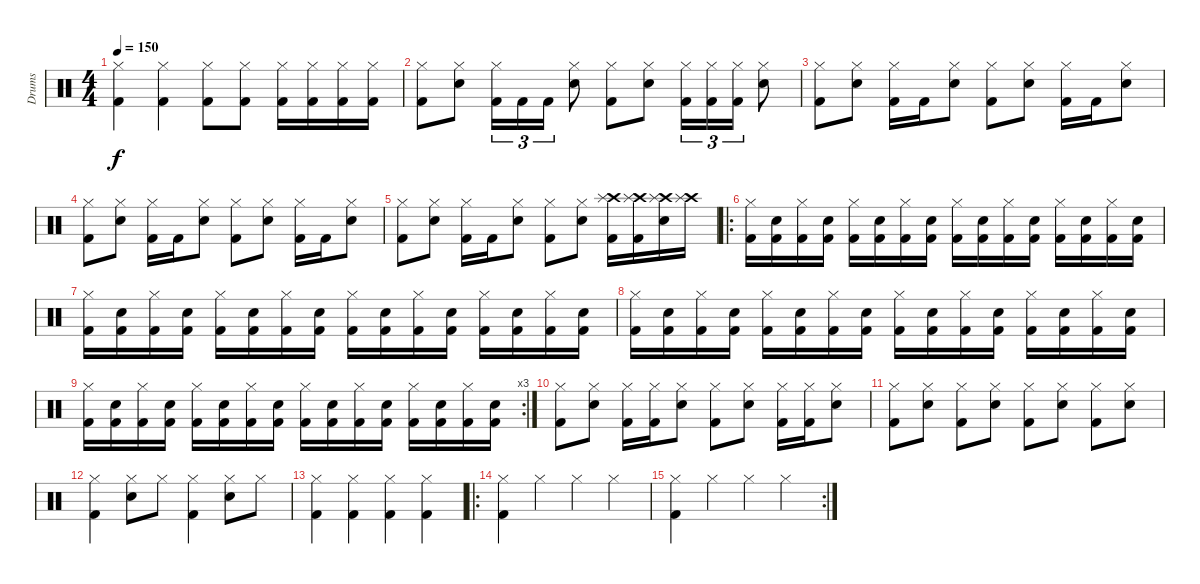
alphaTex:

\track ("Drums" "Drums") {instrument percussion}
\staff {score}
\articulation defaults
\ts (4 4)
\tempo 150
\clef neutral
\ks c
("Hi-Hat (closed)" "Kick (hit) 2").4{dy f} ("Hi-Hat (closed)" "Kick (hit) 2").4 ("Hi-Hat (closed)" "Kick (hit) 2").8 ("Hi-Hat (closed)" "Kick (hit) 2").8 ("Hi-Hat (closed)" "Kick (hit) 2").16 ("Hi-Hat (closed)" "Kick (hit) 2").16 ("Hi-Hat (closed)" "Kick (hit) 2").16 ("Hi-Hat (closed)" "Kick (hit) 2").16 |
("Hi-Hat (closed)" "Kick (hit) 2").8 ("Hi-Hat (closed)" "Snare (hit) 2").8 ("Hi-Hat (closed)" "Kick (hit) 2").16{tu (3 2)} "Kick (hit) 2".16{tu (3 2)} "Kick (hit) 2".16{tu (3 2)} ("Hi-Hat (closed)" "Snare (hit) 2").8 ("Hi-Hat (closed)" "Kick (hit) 2").8 ("Hi-Hat (closed)" "Snare (hit) 2").8 ("Hi-Hat (closed)" "Kick (hit) 2").16{tu (3 2)} ("Hi-Hat (closed)" "Kick (hit) 2").16{tu (3 2)} ("Hi-Hat (closed)" "Kick (hit) 2").16{tu (3 2)} ("Hi-Hat (closed)" "Snare (hit) 2").8 |
("Hi-Hat (closed)" "Kick (hit) 2").8 ("Hi-Hat (closed)" "Snare (hit) 2").8 ("Hi-Hat (closed)" "Kick (hit) 2").16 "Kick (hit) 2".16 ("Hi-Hat (closed)" "Snare (hit) 2").8 ("Hi-Hat (closed)" "Kick (hit) 2").8 ("Hi-Hat (closed)" "Snare (hit) 2").8 ("Hi-Hat (closed)" "Kick (hit) 2").16 "Kick (hit) 2".16 ("Hi-Hat (closed)" "Snare (hit) 2").8 |
("Hi-Hat (closed)" "Kick (hit) 2").8 ("Hi-Hat (closed)" "Snare (hit) 2").8 ("Hi-Hat (closed)" "Kick (hit) 2").16 "Kick (hit) 2".16 ("Hi-Hat (closed)" "Snare (hit) 2").8 ("Hi-Hat (closed)" "Kick (hit) 2").8 ("Hi-Hat (closed)" "Snare (hit) 2").8 ("Hi-Hat (closed)" "Kick (hit) 2").16 "Kick (hit) 2".16 ("Hi-Hat (closed)" "Snare (hit) 2").8 |
("Hi-Hat (closed)" "Kick (hit) 2").8 ("Hi-Hat (closed)" "Snare (hit) 2").8 ("Hi-Hat (closed)" "Kick (hit) 2").16 "Kick (hit) 2".16 ("Hi-Hat (closed)" "Snare (hit) 2").8 ("Hi-Hat (closed)" "Kick (hit) 2").8 ("Hi-Hat (closed)" "Snare (hit) 2").8 ("Crash high (hit)" "Splash (hit)" "Kick (hit) 2").16 ("Crash high (hit)" "Splash (hit)" "Kick (hit) 2").16 ("Crash high (hit)" "Splash (hit)" "Snare (hit) 2").16 ("Crash high (hit)" "Splash (hit)").16 |
\ro
("Hi-Hat (closed)" "Kick (hit) 2").16 ("Kick (hit) 2" "Snare (hit) 2").16 ("Hi-Hat (closed)" "Kick (hit) 2").16 ("Kick (hit) 2" "Snare (hit) 2").16 ("Hi-Hat (closed)" "Kick (hit) 2").16 ("Kick (hit) 2" "Snare (hit) 2").16 ("Hi-Hat (closed)" "Kick (hit) 2").16 ("Kick (hit) 2" "Snare (hit) 2").16 ("Hi-Hat (closed)" "Kick (hit) 2").16 ("Kick (hit) 2" "Snare (hit) 2").16 ("Hi-Hat (closed)" "Kick (hit) 2").16 ("Kick (hit) 2" "Snare (hit) 2").16 ("Hi-Hat (closed)" "Kick (hit) 2").16 ("Kick (hit) 2" "Snare (hit) 2").16 ("Hi-Hat (closed)" "Kick (hit) 2").16 ("Kick (hit) 2" "Snare (hit) 2").16 |
("Hi-Hat (closed)" "Kick (hit) 2").16 ("Kick (hit) 2" "Snare (hit) 2").16 ("Hi-Hat (closed)" "Kick (hit) 2").16 ("Kick (hit) 2" "Snare (hit) 2").16 ("Hi-Hat (closed)" "Kick (hit) 2").16 ("Kick (hit) 2" "Snare (hit) 2").16 ("Hi-Hat (closed)" "Kick (hit) 2").16 ("Kick (hit) 2" "Snare (hit) 2").16 ("Hi-Hat (closed)" "Kick (hit) 2").16 ("Kick (hit) 2" "Snare (hit) 2").16 ("Hi-Hat (closed)" "Kick (hit) 2").16 ("Kick (hit) 2" "Snare (hit) 2").16 ("Hi-Hat (closed)" "Kick (hit) 2").16 ("Kick (hit) 2" "Snare (hit) 2").16 ("Hi-Hat (closed)" "Kick (hit) 2").16 ("Kick (hit) 2" "Snare (hit) 2").16 |
("Hi-Hat (closed)" "Kick (hit) 2").16 ("Kick (hit) 2" "Snare (hit) 2").16 ("Hi-Hat (closed)" "Kick (hit) 2").16 ("Kick (hit) 2" "Snare (hit) 2").16 ("Hi-Hat (closed)" "Kick (hit) 2").16 ("Kick (hit) 2" "Snare (hit) 2").16 ("Hi-Hat (closed)" "Kick (hit) 2").16 ("Kick (hit) 2" "Snare (hit) 2").16 ("Hi-Hat (closed)" "Kick (hit) 2").16 ("Kick (hit) 2" "Snare (hit) 2").16 ("Hi-Hat (closed)" "Kick (hit) 2").16 ("Kick (hit) 2" "Snare (hit) 2").16 ("Hi-Hat (closed)" "Kick (hit) 2").16 ("Kick (hit) 2" "Snare (hit) 2").16 ("Hi-Hat (closed)" "Kick (hit) 2").16 ("Kick (hit) 2" "Snare (hit) 2").16 |
\rc 3
("Hi-Hat (closed)" "Kick (hit) 2").16 ("Kick (hit) 2" "Snare (hit) 2").16 ("Hi-Hat (closed)" "Kick (hit) 2").16 ("Kick (hit) 2" "Snare (hit) 2").16 ("Hi-Hat (closed)" "Kick (hit) 2").16 ("Kick (hit) 2" "Snare (hit) 2").16 ("Hi-Hat (closed)" "Kick (hit) 2").16 ("Kick (hit) 2" "Snare (hit) 2").16 ("Hi-Hat (closed)" "Kick (hit) 2").16 ("Kick (hit) 2" "Snare (hit) 2").16 ("Hi-Hat (closed)" "Kick (hit) 2").16 ("Kick (hit) 2" "Snare (hit) 2").16 ("Hi-Hat (closed)" "Kick (hit) 2").16 ("Kick (hit) 2" "Snare (hit) 2").16 ("Hi-Hat (closed)" "Kick (hit) 2").16 ("Kick (hit) 2" "Snare (hit) 2").16 |
("Hi-Hat (closed)" "Kick (hit) 2").8 ("Hi-Hat (closed)" "Snare (hit) 2").8 ("Hi-Hat (closed)" "Kick (hit) 2").16 ("Hi-Hat (closed)" "Kick (hit) 2").16 ("Hi-Hat (closed)" "Snare (hit) 2").8 ("Hi-Hat (closed)" "Kick (hit) 2").8 ("Hi-Hat (closed)" "Snare (hit) 2").8 ("Hi-Hat (closed)" "Kick (hit) 2").16 ("Hi-Hat (closed)" "Kick (hit) 2").16 ("Hi-Hat (closed)" "Snare (hit) 2").8 |
("Hi-Hat (closed)" "Kick (hit) 2").8 ("Hi-Hat (closed)" "Snare (hit) 2").8 ("Hi-Hat (closed)" "Kick (hit) 2").8 ("Hi-Hat (closed)" "Snare (hit) 2").8 ("Hi-Hat (closed)" "Kick (hit) 2").8 ("Hi-Hat (closed)" "Snare (hit) 2").8 ("Hi-Hat (closed)" "Kick (hit) 2").8 ("Hi-Hat (closed)" "Snare (hit) 2").8 |
("Hi-Hat (closed)" "Kick (hit) 2").4 ("Hi-Hat (closed)" "Snare (hit) 2").8 "Hi-Hat (closed)".8 ("Hi-Hat (closed)" "Kick (hit) 2").4 ("Hi-Hat (closed)" "Snare (hit) 2").8 "Hi-Hat (closed)".8 |
("Hi-Hat (closed)" "Kick (hit) 2").4 ("Hi-Hat (closed)" "Kick (hit) 2").4 ("Hi-Hat (closed)" "Kick (hit) 2").4 ("Hi-Hat (closed)" "Kick (hit) 2").4 |
\ro
("Hi-Hat (closed)" "Kick (hit) 2").4 "Hi-Hat (closed)".4 "Hi-Hat (closed)".4 "Hi-Hat (closed)".4 |
\rc 2
("Hi-Hat (closed)" "Kick (hit) 2").4 "Hi-Hat (closed)".4 "Hi-Hat (closed)".4 "Hi-Hat (closed)".4
